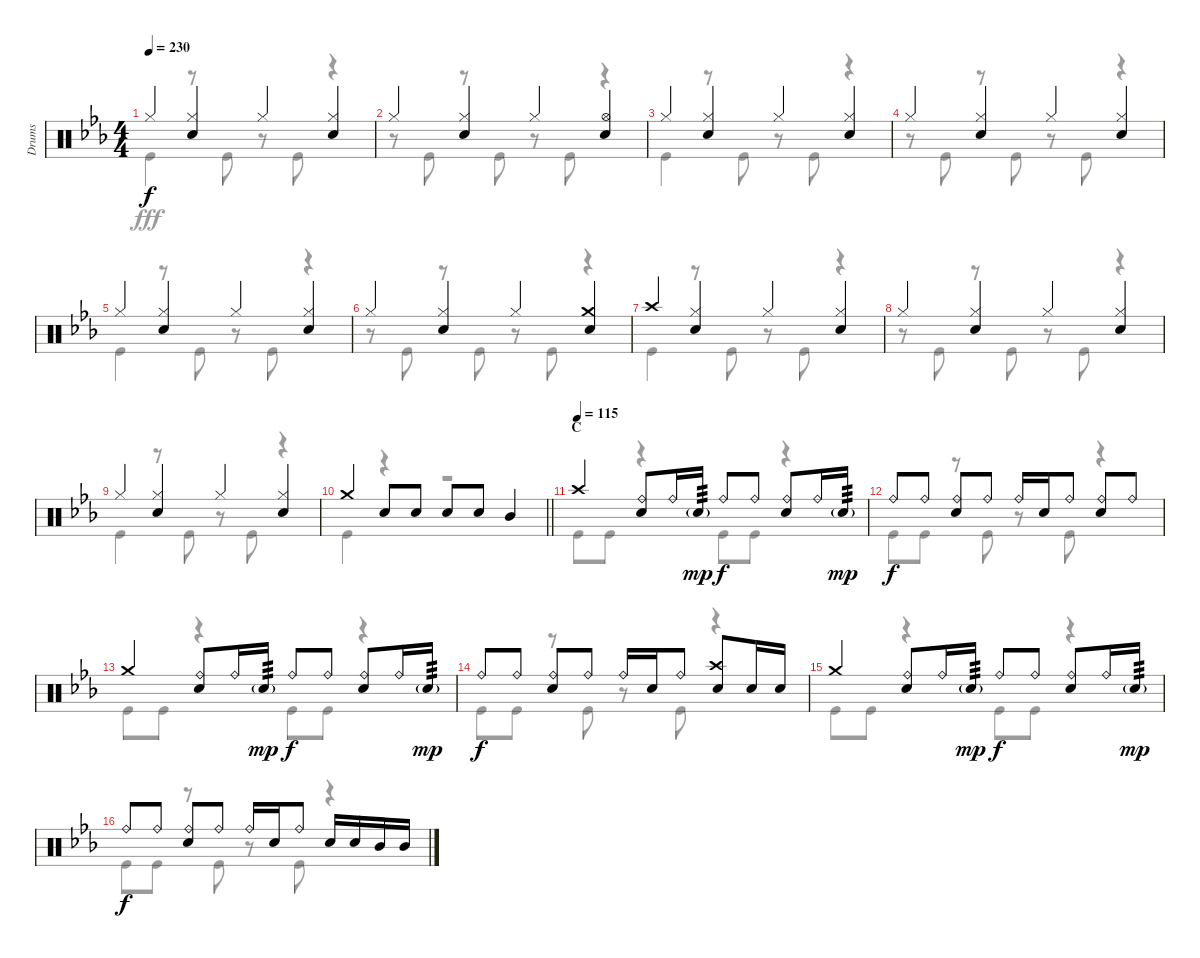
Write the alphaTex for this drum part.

\track ("Drums" "Drums") {instrument percussion}
\staff {score}
\articulation defaults
\voice
\ts (4 4)
\tempo 230
\clef neutral
\ks eb "Hi-Hat (closed)".4{dy f}
("Hi-Hat (closed)" "Snare (hit) 2").4 "Hi-Hat (closed)".4 ("Hi-Hat (closed)" "Snare (hit) 2").4 |
"Hi-Hat (closed)".4 ("Hi-Hat (closed)" "Snare (hit) 2").4 "Hi-Hat (closed)".4 ("Hi-Hat (open)" "Snare (hit) 2").4 |
"Hi-Hat (closed)".4 ("Hi-Hat (closed)" "Snare (hit) 2").4 "Hi-Hat (closed)".4 ("Hi-Hat (closed)" "Snare (hit) 2").4 |
"Hi-Hat (closed)".4 ("Hi-Hat (closed)" "Snare (hit) 2").4 "Hi-Hat (closed)".4 ("Hi-Hat (closed)" "Snare (hit) 2").4 |
"Hi-Hat (closed)".4 ("Hi-Hat (closed)" "Snare (hit) 2").4 "Hi-Hat (closed)".4 ("Hi-Hat (closed)" "Snare (hit) 2").4 |
"Hi-Hat (closed)".4 ("Hi-Hat (closed)" "Snare (hit) 2").4 "Hi-Hat (closed)".4 ("Crash medium (hit)" "Snare (hit) 2").4 |
"Crash high (hit)".4 ("Hi-Hat (closed)" "Snare (hit) 2").4 "Hi-Hat (closed)".4 ("Hi-Hat (closed)" "Snare (hit) 2").4 |
"Hi-Hat (closed)".4 ("Hi-Hat (closed)" "Snare (hit) 2").4 "Hi-Hat (closed)".4 ("Hi-Hat (closed)" "Snare (hit) 2").4 |
"Hi-Hat (closed)".4 ("Hi-Hat (closed)" "Snare (hit) 2").4 "Hi-Hat (closed)".4 ("Hi-Hat (closed)" "Snare (hit) 2").4 |
\barLineRight lightlight "Crash medium (hit)".4 "Snare (hit) 2".8 "Snare (hit) 2".8 "Snare (hit) 2".8 "Snare (hit) 2".8 "Mid Tom (hit)".4
|
\section ("" "C")
\tempo (115)
"Crash high (hit)".4 ("Ride (bell)" "Snare (hit) 2").8 "Ride (bell)".16 "Snare (hit) 2"{g}.16{tp 3 dy mp} "Ride (bell)".8{dy f} "Ride (bell)".8 ("Ride (bell)" "Snare (hit) 2").8 "Ride (bell)".16 "Snare (hit) 2"{g}.16{tp 3 dy mp} |
"Ride (bell)".8{dy f} "Ride (bell)".8 ("Ride (bell)" "Snare (hit) 2").8 "Ride (bell)".8 "Ride (bell)".16 "Snare (hit) 2".16 "Ride (bell)".8 ("Ride (bell)" "Snare (hit) 2").8 "Ride (bell)".8 |
"Crash medium (hit)".4 ("Ride (bell)" "Snare (hit) 2").8 "Ride (bell)".16 "Snare (hit) 2"{g}.16{tp 3 dy mp} "Ride (bell)".8{dy f} "Ride (bell)".8 ("Ride (bell)" "Snare (hit) 2").8 "Ride (bell)".16 "Snare (hit) 2"{g}.16{tp 3 dy mp} |
"Ride (bell)".8{dy f} "Ride (bell)".8 ("Ride (bell)" "Snare (hit) 2").8 "Ride (bell)".8 "Ride (bell)".16 "Snare (hit) 2".16 "Ride (bell)".8 ("Crash high (hit)" "Snare (hit) 2").8 "Snare (hit) 2".16 "Snare (hit) 2".16 |
"Crash medium (hit)".4 ("Ride (bell)" "Snare (hit) 2").8 "Ride (bell)".16 "Snare (hit) 2"{g}.16{tp 3 dy mp} "Ride (bell)".8{dy f} "Ride (bell)".8 ("Ride (bell)" "Snare (hit) 2").8 "Ride (bell)".16 "Snare (hit) 2"{g}.16{tp 3 dy mp} |
"Ride (bell)".8{dy f} "Ride (bell)".8 ("Ride (bell)" "Snare (hit) 2").8 "Ride (bell)".8 "Ride (bell)".16 "Snare (hit) 2".16 "Ride (bell)".8 "Snare (hit) 2".16 "Snare (hit) 2".16 "Mid Tom (hit)".16 "Mid Tom (hit)".16
\voice
\clef neutral
\ottava regular
\simile none
\ks eb "Kick (hit)".4{dy fff}
r.8 "Kick (hit)".8 r.8 "Kick (hit)".8 r.4 |
r.8 "Kick (hit)".8 r.8 "Kick (hit)".8 r.8 "Kick (hit)".8 r.4 |
"Kick (hit)".4 r.8 "Kick (hit)".8 r.8 "Kick (hit)".8 r.4 |
r.8 "Kick (hit)".8 r.8 "Kick (hit)".8 r.8 "Kick (hit)".8 r.4 |
"Kick (hit)".4 r.8 "Kick (hit)".8 r.8 "Kick (hit)".8 r.4 |
r.8 "Kick (hit)".8 r.8 "Kick (hit)".8 r.8 "Kick (hit)".8 r.4 |
"Kick (hit)".4 r.8 "Kick (hit)".8 r.8 "Kick (hit)".8 r.4 |
r.8 "Kick (hit)".8 r.8 "Kick (hit)".8 r.8 "Kick (hit)".8 r.4 |
"Kick (hit)".4 r.8 "Kick (hit)".8 r.8 "Kick (hit)".8 r.4 |
\barLineRight lightlight "Kick (hit)".4
r.4 r.2 |
"Kick (hit)".8 "Kick (hit)".8 r.4 "Kick (hit)".8 "Kick (hit)".8 r.4 |
"Kick (hit)".8 "Kick (hit)".8 r.8 "Kick (hit)".8 r.8 "Kick (hit)".8 r.4 |
"Kick (hit)".8 "Kick (hit)".8 r.4 "Kick (hit)".8 "Kick (hit)".8 r.4 |
"Kick (hit)".8 "Kick (hit)".8 r.8 "Kick (hit)".8 r.8 "Kick (hit)".8 r.4 |
"Kick (hit)".8 "Kick (hit)".8 r.4 "Kick (hit)".8 "Kick (hit)".8 r.4 |
"Kick (hit)".8 "Kick (hit)".8 r.8 "Kick (hit)".8 r.8 "Kick (hit)".8 r.4
